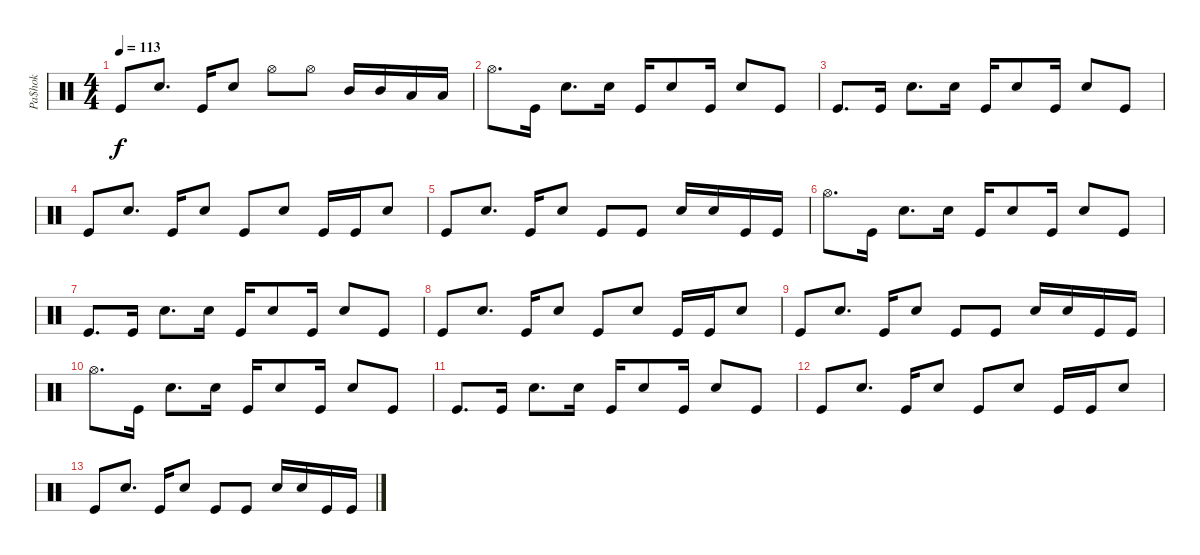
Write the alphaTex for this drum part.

\track ("Pa$hok" "Pa$hok") {instrument percussion}
\staff {score}
\articulation defaults
\ts (4 4)
\tempo 113
\clef neutral
\ks c "Kick (hit)".8{dy f} "Snare (hit) 2".8{d} "Kick (hit)".16 "Snare (hit) 2".8 "Hi-Hat (open)".8 "Hi-Hat (open)".8 "Mid Tom (hit)".16 "Mid Tom (hit)".16 "Low Tom (hit)".16 "Low Tom (hit)".16
|
"Hi-Hat (open)".8{d} "Kick (hit)".16 "Snare (hit) 2".8{d} "Snare (hit) 2".16 "Kick (hit)".16 "Snare (hit) 2".8 "Kick (hit)".16 "Snare (hit) 2".8 "Kick (hit)".8 |
"Kick (hit)".8{d} "Kick (hit)".16 "Snare (hit) 2".8{d} "Snare (hit) 2".16 "Kick (hit)".16 "Snare (hit) 2".8 "Kick (hit)".16 "Snare (hit) 2".8 "Kick (hit)".8 |
"Kick (hit)".8 "Snare (hit) 2".8{d} "Kick (hit)".16 "Snare (hit) 2".8 "Kick (hit)".8 "Snare (hit) 2".8 "Kick (hit)".16 "Kick (hit)".16 "Snare (hit) 2".8 |
"Kick (hit)".8 "Snare (hit) 2".8{d} "Kick (hit)".16 "Snare (hit) 2".8 "Kick (hit)".8 "Kick (hit)".8 "Snare (hit) 2".16 "Snare (hit) 2".16 "Kick (hit)".16 "Kick (hit)".16 |
"Hi-Hat (open)".8{d} "Kick (hit)".16 "Snare (hit) 2".8{d} "Snare (hit) 2".16 "Kick (hit)".16 "Snare (hit) 2".8 "Kick (hit)".16 "Snare (hit) 2".8 "Kick (hit)".8 |
"Kick (hit)".8{d} "Kick (hit)".16 "Snare (hit) 2".8{d} "Snare (hit) 2".16 "Kick (hit)".16 "Snare (hit) 2".8 "Kick (hit)".16 "Snare (hit) 2".8 "Kick (hit)".8 |
"Kick (hit)".8 "Snare (hit) 2".8{d} "Kick (hit)".16 "Snare (hit) 2".8 "Kick (hit)".8 "Snare (hit) 2".8 "Kick (hit)".16 "Kick (hit)".16 "Snare (hit) 2".8 |
"Kick (hit)".8 "Snare (hit) 2".8{d} "Kick (hit)".16 "Snare (hit) 2".8 "Kick (hit)".8 "Kick (hit)".8 "Snare (hit) 2".16 "Snare (hit) 2".16 "Kick (hit)".16 "Kick (hit)".16 |
"Hi-Hat (open)".8{d} "Kick (hit)".16 "Snare (hit) 2".8{d} "Snare (hit) 2".16 "Kick (hit)".16 "Snare (hit) 2".8 "Kick (hit)".16 "Snare (hit) 2".8 "Kick (hit)".8 |
"Kick (hit)".8{d} "Kick (hit)".16 "Snare (hit) 2".8{d} "Snare (hit) 2".16 "Kick (hit)".16 "Snare (hit) 2".8 "Kick (hit)".16 "Snare (hit) 2".8 "Kick (hit)".8 |
"Kick (hit)".8 "Snare (hit) 2".8{d} "Kick (hit)".16 "Snare (hit) 2".8 "Kick (hit)".8 "Snare (hit) 2".8 "Kick (hit)".16 "Kick (hit)".16 "Snare (hit) 2".8 |
"Kick (hit)".8 "Snare (hit) 2".8{d} "Kick (hit)".16 "Snare (hit) 2".8 "Kick (hit)".8 "Kick (hit)".8 "Snare (hit) 2".16 "Snare (hit) 2".16 "Kick (hit)".16 "Kick (hit)".16
